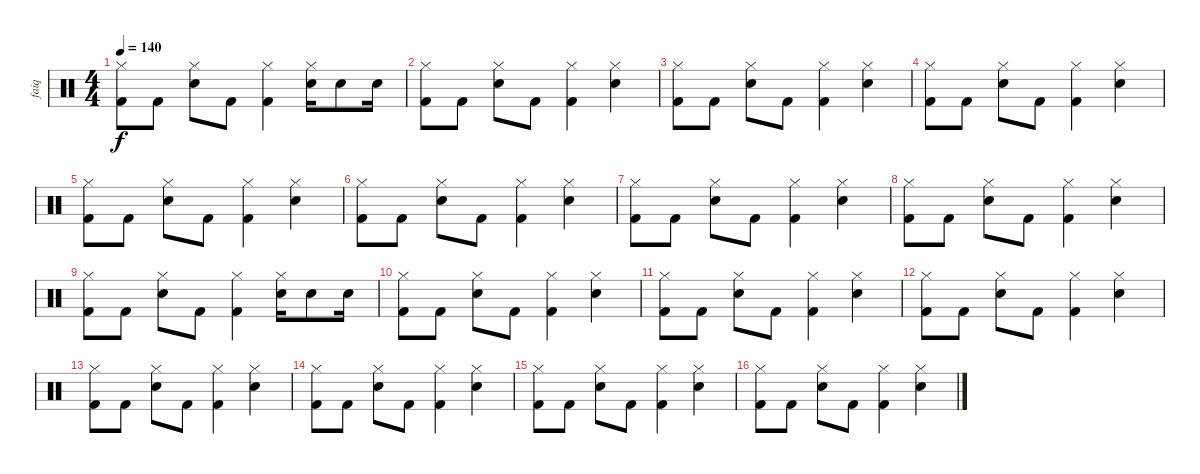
\track ("faiq" "faiq") {instrument percussion}
\staff {score}
\articulation defaults
\ts (4 4)
\tempo 140
\clef neutral
\ks c
("Hi-Hat (closed)" "Kick (hit) 2").8{dy f} "Kick (hit) 2".8 ("Hi-Hat (closed)" "Electric Snare (hit)").8 "Kick (hit) 2".8 ("Hi-Hat (closed)" "Kick (hit) 2").4 ("Hi-Hat (closed)" "Electric Snare (hit)").16 "Electric Snare (hit)".8 "Electric Snare (hit)".16 |
("Hi-Hat (closed)" "Kick (hit) 2").8 "Kick (hit) 2".8 ("Hi-Hat (closed)" "Electric Snare (hit)").8 "Kick (hit) 2".8 ("Hi-Hat (closed)" "Kick (hit) 2").4 ("Hi-Hat (closed)" "Electric Snare (hit)").4 |
("Hi-Hat (closed)" "Kick (hit) 2").8 "Kick (hit) 2".8 ("Hi-Hat (closed)" "Electric Snare (hit)").8 "Kick (hit) 2".8 ("Hi-Hat (closed)" "Kick (hit) 2").4 ("Hi-Hat (closed)" "Electric Snare (hit)").4 |
("Hi-Hat (closed)" "Kick (hit) 2").8 "Kick (hit) 2".8 ("Hi-Hat (closed)" "Electric Snare (hit)").8 "Kick (hit) 2".8 ("Hi-Hat (closed)" "Kick (hit) 2").4 ("Hi-Hat (closed)" "Electric Snare (hit)").4 |
("Hi-Hat (closed)" "Kick (hit) 2").8 "Kick (hit) 2".8 ("Hi-Hat (closed)" "Electric Snare (hit)").8 "Kick (hit) 2".8 ("Hi-Hat (closed)" "Kick (hit) 2").4 ("Hi-Hat (closed)" "Electric Snare (hit)").4 |
("Hi-Hat (closed)" "Kick (hit) 2").8 "Kick (hit) 2".8 ("Hi-Hat (closed)" "Electric Snare (hit)").8 "Kick (hit) 2".8 ("Hi-Hat (closed)" "Kick (hit) 2").4 ("Hi-Hat (closed)" "Electric Snare (hit)").4 |
("Hi-Hat (closed)" "Kick (hit) 2").8 "Kick (hit) 2".8 ("Hi-Hat (closed)" "Electric Snare (hit)").8 "Kick (hit) 2".8 ("Hi-Hat (closed)" "Kick (hit) 2").4 ("Hi-Hat (closed)" "Electric Snare (hit)").4 |
("Hi-Hat (closed)" "Kick (hit) 2").8 "Kick (hit) 2".8 ("Hi-Hat (closed)" "Electric Snare (hit)").8 "Kick (hit) 2".8 ("Hi-Hat (closed)" "Kick (hit) 2").4 ("Hi-Hat (closed)" "Electric Snare (hit)").4 |
("Hi-Hat (closed)" "Kick (hit) 2").8 "Kick (hit) 2".8 ("Hi-Hat (closed)" "Electric Snare (hit)").8 "Kick (hit) 2".8 ("Hi-Hat (closed)" "Kick (hit) 2").4 ("Hi-Hat (closed)" "Electric Snare (hit)").16 "Electric Snare (hit)".8 "Electric Snare (hit)".16 |
("Hi-Hat (closed)" "Kick (hit) 2").8 "Kick (hit) 2".8 ("Hi-Hat (closed)" "Electric Snare (hit)").8 "Kick (hit) 2".8 ("Hi-Hat (closed)" "Kick (hit) 2").4 ("Hi-Hat (closed)" "Electric Snare (hit)").4 |
("Hi-Hat (closed)" "Kick (hit) 2").8 "Kick (hit) 2".8 ("Hi-Hat (closed)" "Electric Snare (hit)").8 "Kick (hit) 2".8 ("Hi-Hat (closed)" "Kick (hit) 2").4 ("Hi-Hat (closed)" "Electric Snare (hit)").4 |
("Hi-Hat (closed)" "Kick (hit) 2").8 "Kick (hit) 2".8 ("Hi-Hat (closed)" "Electric Snare (hit)").8 "Kick (hit) 2".8 ("Hi-Hat (closed)" "Kick (hit) 2").4 ("Hi-Hat (closed)" "Electric Snare (hit)").4 |
("Hi-Hat (closed)" "Kick (hit) 2").8 "Kick (hit) 2".8 ("Hi-Hat (closed)" "Electric Snare (hit)").8 "Kick (hit) 2".8 ("Hi-Hat (closed)" "Kick (hit) 2").4 ("Hi-Hat (closed)" "Electric Snare (hit)").4 |
("Hi-Hat (closed)" "Kick (hit) 2").8 "Kick (hit) 2".8 ("Hi-Hat (closed)" "Electric Snare (hit)").8 "Kick (hit) 2".8 ("Hi-Hat (closed)" "Kick (hit) 2").4 ("Hi-Hat (closed)" "Electric Snare (hit)").4 |
("Hi-Hat (closed)" "Kick (hit) 2").8 "Kick (hit) 2".8 ("Hi-Hat (closed)" "Electric Snare (hit)").8 "Kick (hit) 2".8 ("Hi-Hat (closed)" "Kick (hit) 2").4 ("Hi-Hat (closed)" "Electric Snare (hit)").4 |
("Hi-Hat (closed)" "Kick (hit) 2").8 "Kick (hit) 2".8 ("Hi-Hat (closed)" "Electric Snare (hit)").8 "Kick (hit) 2".8 ("Hi-Hat (closed)" "Kick (hit) 2").4 ("Hi-Hat (closed)" "Electric Snare (hit)").4
